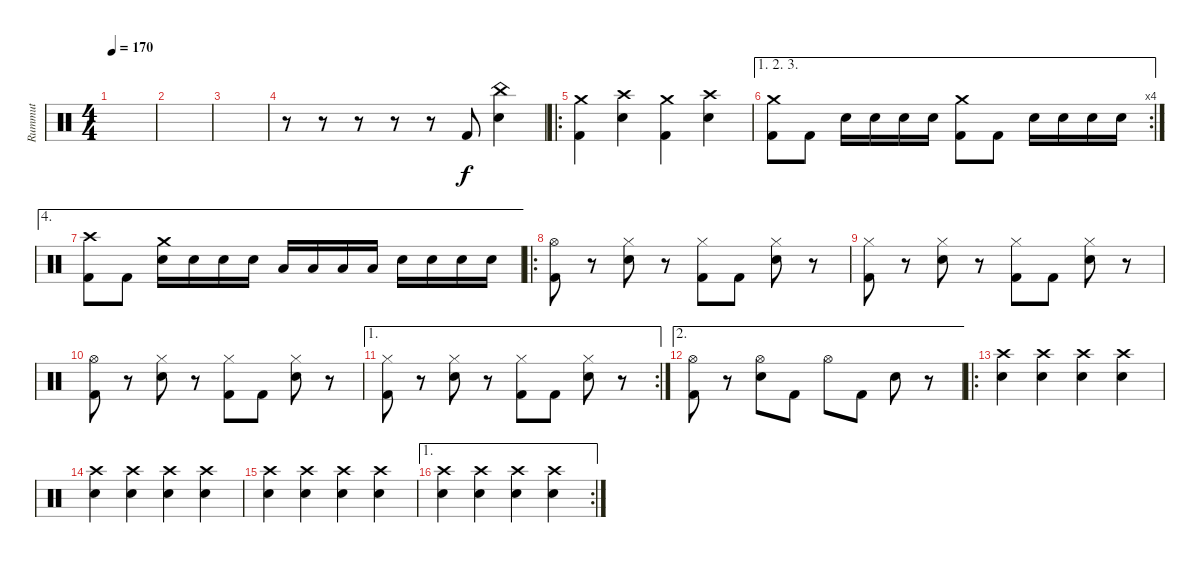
\track ("Rummut" "Rummut") {instrument percussion}
\staff {score}
\articulation defaults
\ts (4 4)
\tempo 170
\clef neutral
\ks c
|
|
|
r.8 r.8 r.8 r.8 r.8 "Kick (hit) 2".8 ("China (hit)" "Electric Snare (hit)").4 |
\ro
("Crash medium (hit)" "Kick (hit) 2").4 ("Crash high (hit)" "Electric Snare (hit)").4 ("Crash medium (hit)" "Kick (hit) 2").4 ("Crash high (hit)" "Electric Snare (hit)").4 |
\ae (1 2 3)
\rc 4
("Crash medium (hit)" "Kick (hit) 2").8 "Kick (hit) 2".8 "Electric Snare (hit)".16 "Electric Snare (hit)".16 "Electric Snare (hit)".16 "Electric Snare (hit)".16 ("Crash medium (hit)" "Kick (hit) 2").8 "Kick (hit) 2".8 "Electric Snare (hit)".16 "Electric Snare (hit)".16 "Electric Snare (hit)".16 "Electric Snare (hit)".16 |
\ae 4
("Crash high (hit)" "Kick (hit) 2").8 "Kick (hit) 2".8 ("Crash medium (hit)" "Electric Snare (hit)").16 "Electric Snare (hit)".16 "Electric Snare (hit)".16 "Electric Snare (hit)".16 "Low Tom (hit)".16 "Low Tom (hit)".16 "Low Tom (hit)".16 "Low Tom (hit)".16 "Electric Snare (hit)".16 "Electric Snare (hit)".16 "Electric Snare (hit)".16 "Electric Snare (hit)".16 |
\ro
("Hi-Hat (open)" "Kick (hit) 2").8 r.8 ("Hi-Hat (closed)" "Electric Snare (hit)").8 r.8 ("Hi-Hat (closed)" "Kick (hit) 2").8 "Kick (hit) 2".8 ("Hi-Hat (closed)" "Electric Snare (hit)").8 r.8 |
("Hi-Hat (closed)" "Kick (hit) 2").8 r.8 ("Hi-Hat (closed)" "Electric Snare (hit)").8 r.8 ("Hi-Hat (closed)" "Kick (hit) 2").8 "Kick (hit) 2".8 ("Hi-Hat (closed)" "Electric Snare (hit)").8 r.8 |
("Hi-Hat (open)" "Kick (hit) 2").8 r.8 ("Hi-Hat (closed)" "Electric Snare (hit)").8 r.8 ("Hi-Hat (closed)" "Kick (hit) 2").8 "Kick (hit) 2".8 ("Hi-Hat (closed)" "Electric Snare (hit)").8 r.8 |
\ae 1
\rc 2
("Hi-Hat (closed)" "Kick (hit) 2").8 r.8 ("Hi-Hat (closed)" "Electric Snare (hit)").8 r.8 ("Hi-Hat (closed)" "Kick (hit) 2").8 "Kick (hit) 2".8 ("Hi-Hat (closed)" "Electric Snare (hit)").8 r.8 |
\ae 2
("Hi-Hat (open)" "Kick (hit) 2").8 r.8 ("Hi-Hat (open)" "Electric Snare (hit)").8 "Kick (hit) 2".8 "Hi-Hat (open)".8 "Kick (hit) 2".8 "Electric Snare (hit)".8 r.8 |
\ro
("Crash high (hit)" "Electric Snare (hit)").4 ("Crash high (hit)" "Electric Snare (hit)").4 ("Crash high (hit)" "Electric Snare (hit)").4 ("Crash high (hit)" "Electric Snare (hit)").4 |
("Crash high (hit)" "Electric Snare (hit)").4 ("Crash high (hit)" "Electric Snare (hit)").4 ("Crash high (hit)" "Electric Snare (hit)").4 ("Crash high (hit)" "Electric Snare (hit)").4 |
("Crash high (hit)" "Electric Snare (hit)").4 ("Crash high (hit)" "Electric Snare (hit)").4 ("Crash high (hit)" "Electric Snare (hit)").4 ("Crash high (hit)" "Electric Snare (hit)").4 |
\ae 1
\rc 2
("Crash high (hit)" "Electric Snare (hit)").4 ("Crash high (hit)" "Electric Snare (hit)").4 ("Crash high (hit)" "Electric Snare (hit)").4 ("Crash high (hit)" "Electric Snare (hit)").4
